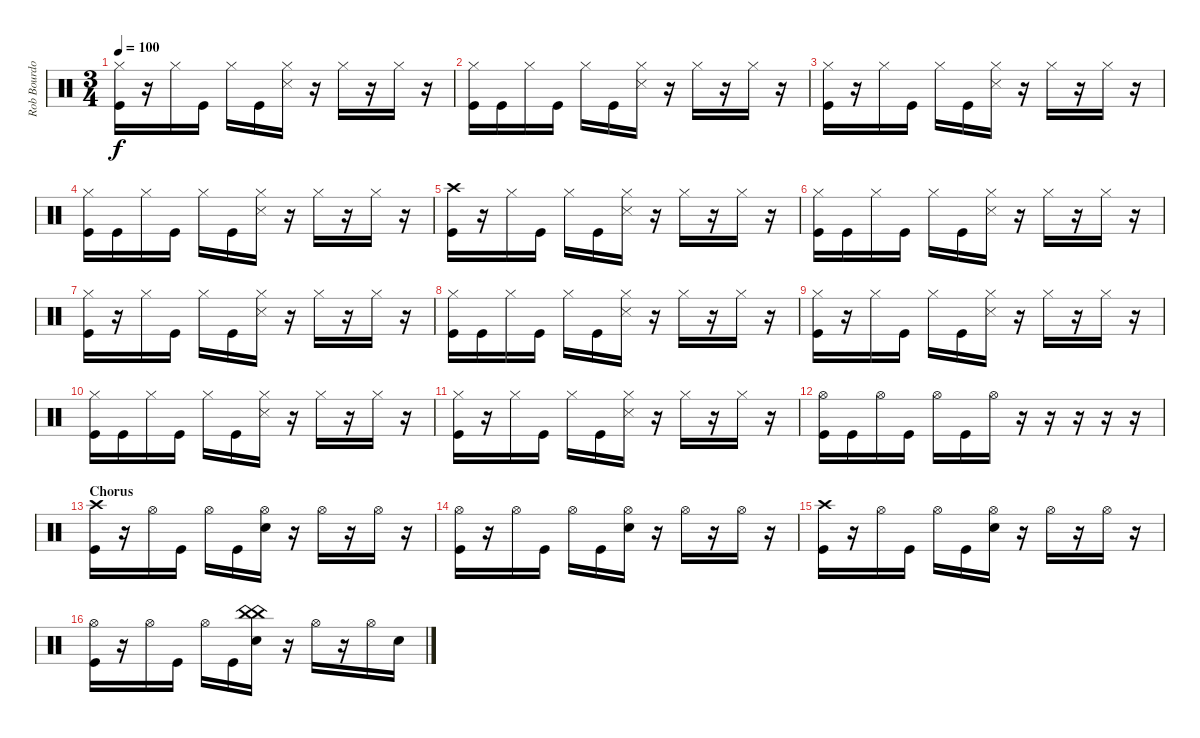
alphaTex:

\track ("Rob Bourdon" "Rob Bourdo") {instrument percussion}
\staff {score}
\articulation defaults
\ts (3 4)
\tempo 100
\clef neutral
\ks c
("Hi-Hat (closed)" "Kick (hit)").16{dy f} r.16 "Hi-Hat (closed)".16 "Kick (hit)".16 "Hi-Hat (closed)".16 "Kick (hit)".16 ("Hi-Hat (closed)" "Snare (side stick) 3").16 r.16 "Hi-Hat (closed)".16 r.16 "Hi-Hat (closed)".16 r.16 |
("Hi-Hat (closed)" "Kick (hit)").16 "Kick (hit)".16 "Hi-Hat (closed)".16 "Kick (hit)".16 "Hi-Hat (closed)".16 "Kick (hit)".16 ("Hi-Hat (closed)" "Snare (side stick) 3").16 r.16 "Hi-Hat (closed)".16 r.16 "Hi-Hat (closed)".16 r.16 |
("Hi-Hat (closed)" "Kick (hit)").16 r.16 "Hi-Hat (closed)".16 "Kick (hit)".16 "Hi-Hat (closed)".16 "Kick (hit)".16 ("Hi-Hat (closed)" "Snare (side stick) 3").16 r.16 "Hi-Hat (closed)".16 r.16 "Hi-Hat (closed)".16 r.16 |
("Hi-Hat (closed)" "Kick (hit)").16 "Kick (hit)".16 "Hi-Hat (closed)".16 "Kick (hit)".16 "Hi-Hat (closed)".16 "Kick (hit)".16 ("Hi-Hat (closed)" "Snare (side stick) 3").16 r.16 "Hi-Hat (closed)".16 r.16 "Hi-Hat (closed)".16 r.16 |
("Crash high (hit)" "Kick (hit)").16 r.16 "Hi-Hat (closed)".16 "Kick (hit)".16 "Hi-Hat (closed)".16 "Kick (hit)".16 ("Hi-Hat (closed)" "Snare (side stick) 3").16 r.16 "Hi-Hat (closed)".16 r.16 "Hi-Hat (closed)".16 r.16 |
("Hi-Hat (closed)" "Kick (hit)").16 "Kick (hit)".16 "Hi-Hat (closed)".16 "Kick (hit)".16 "Hi-Hat (closed)".16 "Kick (hit)".16 ("Hi-Hat (closed)" "Snare (side stick) 3").16 r.16 "Hi-Hat (closed)".16 r.16 "Hi-Hat (closed)".16 r.16 |
("Hi-Hat (closed)" "Kick (hit)").16 r.16 "Hi-Hat (closed)".16 "Kick (hit)".16 "Hi-Hat (closed)".16 "Kick (hit)".16 ("Hi-Hat (closed)" "Snare (side stick) 3").16 r.16 "Hi-Hat (closed)".16 r.16 "Hi-Hat (closed)".16 r.16 |
("Hi-Hat (closed)" "Kick (hit)").16 "Kick (hit)".16 "Hi-Hat (closed)".16 "Kick (hit)".16 "Hi-Hat (closed)".16 "Kick (hit)".16 ("Hi-Hat (closed)" "Snare (side stick) 3").16 r.16 "Hi-Hat (closed)".16 r.16 "Hi-Hat (closed)".16 r.16 |
("Hi-Hat (closed)" "Kick (hit)").16 r.16 "Hi-Hat (closed)".16 "Kick (hit)".16 "Hi-Hat (closed)".16 "Kick (hit)".16 ("Hi-Hat (closed)" "Snare (side stick) 3").16 r.16 "Hi-Hat (closed)".16 r.16 "Hi-Hat (closed)".16 r.16 |
("Hi-Hat (closed)" "Kick (hit)").16 "Kick (hit)".16 "Hi-Hat (closed)".16 "Kick (hit)".16 "Hi-Hat (closed)".16 "Kick (hit)".16 ("Hi-Hat (closed)" "Snare (side stick) 3").16 r.16 "Hi-Hat (closed)".16 r.16 "Hi-Hat (closed)".16 r.16 |
("Hi-Hat (closed)" "Kick (hit)").16 r.16 "Hi-Hat (closed)".16 "Kick (hit)".16 "Hi-Hat (closed)".16 "Kick (hit)".16 ("Hi-Hat (closed)" "Snare (side stick) 3").16 r.16 "Hi-Hat (closed)".16 r.16 "Hi-Hat (closed)".16 r.16 |
("Hi-Hat (open)" "Kick (hit)").16 "Kick (hit)".16 "Hi-Hat (open)".16 "Kick (hit)".16 "Hi-Hat (open)".16 "Kick (hit)".16 "Hi-Hat (open)".16 r.16 r.16 r.16 r.16 r.16 |
\section ("" "Chorus")
("Crash high (hit)" "Kick (hit)").16 r.16 "Hi-Hat (open)".16 "Kick (hit)".16 "Hi-Hat (open)".16 "Kick (hit)".16 ("Hi-Hat (open)" "Snare (hit) 2").16 r.16 "Hi-Hat (open)".16 r.16 "Hi-Hat (open)".16 r.16 |
("Hi-Hat (open)" "Kick (hit)").16 r.16 "Hi-Hat (open)".16 "Kick (hit)".16 "Hi-Hat (open)".16 "Kick (hit)".16 ("Hi-Hat (open)" "Snare (hit) 2").16 r.16 "Hi-Hat (open)".16 r.16 "Hi-Hat (open)".16 r.16 |
("Crash high (hit)" "Kick (hit)").16 r.16 "Hi-Hat (open)".16 "Kick (hit)".16 "Hi-Hat (open)".16 "Kick (hit)".16 ("Hi-Hat (open)" "Snare (hit) 2").16 r.16 "Hi-Hat (open)".16 r.16 "Hi-Hat (open)".16 r.16 |
("Hi-Hat (open)" "Kick (hit)").16 r.16 "Hi-Hat (open)".16 "Kick (hit)".16 "Hi-Hat (open)".16 "Kick (hit)".16 ("China (hit)" "China (hit)" "Snare (hit) 2").16 r.16 "Hi-Hat (open)".16 r.16 "Hi-Hat (open)".16 "Snare (hit) 2".16
